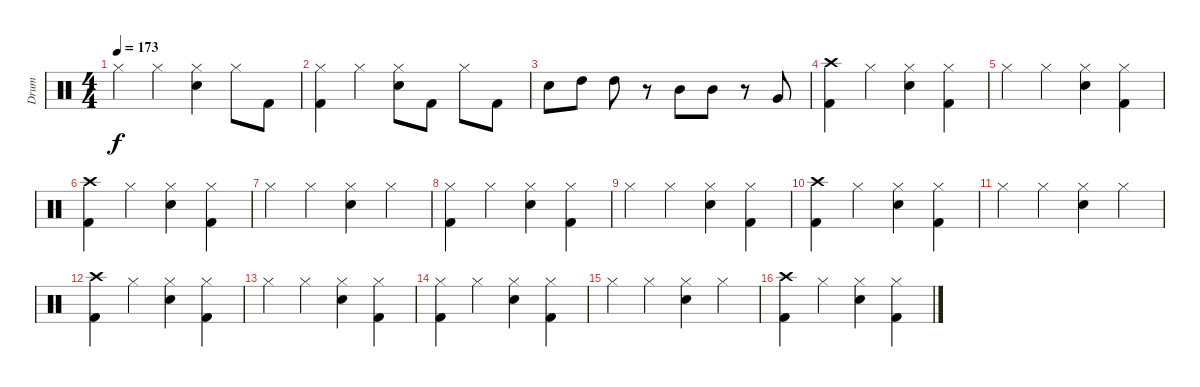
\track ("Drum" "Drum") {instrument percussion}
\staff {score}
\articulation defaults
\ts (4 4)
\tempo 173
\clef neutral
\ks c "Hi-Hat (closed)".4{dy f} "Hi-Hat (closed)".4
("Hi-Hat (closed)" "Electric Snare (hit)").4 "Hi-Hat (closed)".8 "Kick (hit) 2".8 |
("Hi-Hat (closed)" "Kick (hit) 2").4 "Hi-Hat (closed)".4 ("Hi-Hat (closed)" "Electric Snare (hit)").8 "Kick (hit) 2".8 "Hi-Hat (closed)".8 "Kick (hit) 2".8 |
"Electric Snare (hit)".8 "High Tom (hit)".8 "High Tom (hit)".8 r.8 "Mid Tom (hit)".8 "Mid Tom (hit)".8 r.8 "Very Low Tom (hit)".8 |
("Crash high (hit)" "Kick (hit) 2").4 "Hi-Hat (closed)".4 ("Hi-Hat (closed)" "Electric Snare (hit)").4 ("Hi-Hat (closed)" "Kick (hit) 2").4 |
"Hi-Hat (closed)".4 "Hi-Hat (closed)".4 ("Hi-Hat (closed)" "Electric Snare (hit)").4 ("Hi-Hat (closed)" "Kick (hit) 2").4 |
("Crash high (hit)" "Kick (hit) 2").4 "Hi-Hat (closed)".4 ("Hi-Hat (closed)" "Electric Snare (hit)").4 ("Hi-Hat (closed)" "Kick (hit) 2").4 |
"Hi-Hat (closed)".4 "Hi-Hat (closed)".4 ("Hi-Hat (closed)" "Electric Snare (hit)").4 "Hi-Hat (closed)".4 |
("Hi-Hat (closed)" "Kick (hit) 2").4 "Hi-Hat (closed)".4 ("Hi-Hat (closed)" "Electric Snare (hit)").4 ("Hi-Hat (closed)" "Kick (hit) 2").4 |
"Hi-Hat (closed)".4 "Hi-Hat (closed)".4 ("Hi-Hat (closed)" "Electric Snare (hit)").4 ("Hi-Hat (closed)" "Kick (hit) 2").4 |
("Crash high (hit)" "Kick (hit) 2").4 "Hi-Hat (closed)".4 ("Hi-Hat (closed)" "Electric Snare (hit)").4 ("Hi-Hat (closed)" "Kick (hit) 2").4 |
"Hi-Hat (closed)".4 "Hi-Hat (closed)".4 ("Hi-Hat (closed)" "Electric Snare (hit)").4 "Hi-Hat (closed)".4 |
("Crash high (hit)" "Kick (hit) 2").4 "Hi-Hat (closed)".4 ("Hi-Hat (closed)" "Electric Snare (hit)").4 ("Hi-Hat (closed)" "Kick (hit) 2").4 |
"Hi-Hat (closed)".4 "Hi-Hat (closed)".4 ("Hi-Hat (closed)" "Electric Snare (hit)").4 ("Hi-Hat (closed)" "Kick (hit) 2").4 |
("Hi-Hat (closed)" "Kick (hit) 2").4 "Hi-Hat (closed)".4 ("Hi-Hat (closed)" "Electric Snare (hit)").4 ("Hi-Hat (closed)" "Kick (hit) 2").4 |
"Hi-Hat (closed)".4 "Hi-Hat (closed)".4 ("Hi-Hat (closed)" "Electric Snare (hit)").4 "Hi-Hat (closed)".4 |
("Crash high (hit)" "Kick (hit) 2").4 "Hi-Hat (closed)".4 ("Hi-Hat (closed)" "Electric Snare (hit)").4 ("Hi-Hat (closed)" "Kick (hit) 2").4
